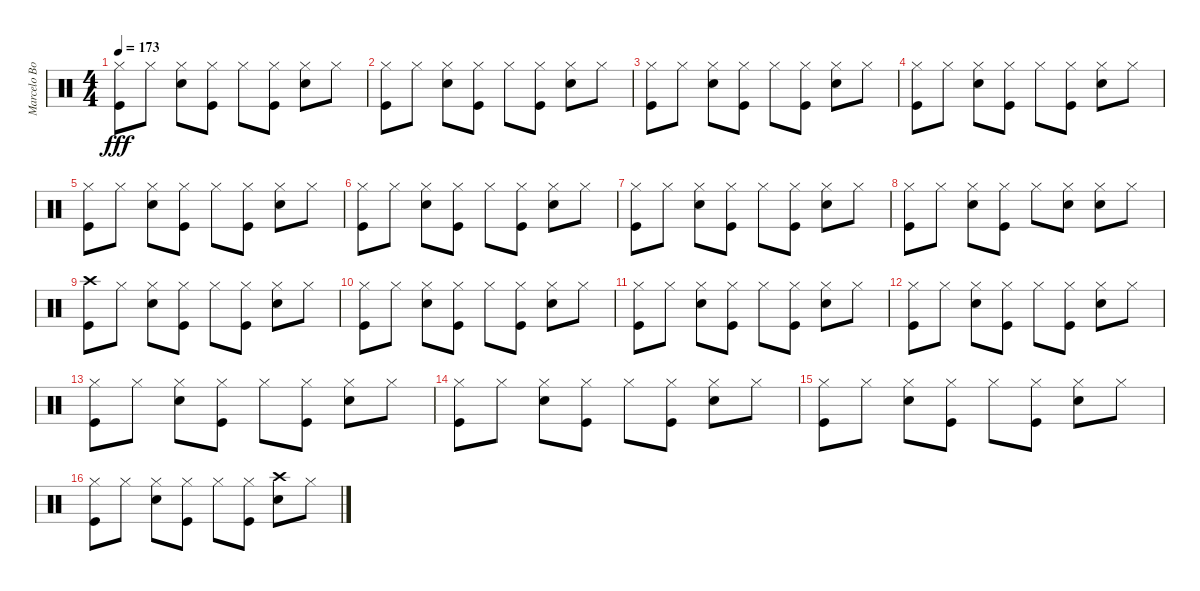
\track ("Marcelo Bonfá (Bateria)" "Marcelo Bo") {instrument percussion}
\staff {score}
\articulation defaults
\ts (4 4)
\tempo 173
\clef neutral
\ks c
("Kick (hit)" "Hi-Hat (closed)").8{dy fff} "Hi-Hat (closed)".8 ("Snare (hit) 2" "Hi-Hat (closed)").8 ("Kick (hit)" "Hi-Hat (closed)").8 "Hi-Hat (closed)".8 ("Hi-Hat (closed)" "Kick (hit)").8 ("Snare (hit) 2" "Hi-Hat (closed)").8 "Hi-Hat (closed)".8 |
("Kick (hit)" "Hi-Hat (closed)").8 "Hi-Hat (closed)".8 ("Snare (hit) 2" "Hi-Hat (closed)").8 ("Kick (hit)" "Hi-Hat (closed)").8 "Hi-Hat (closed)".8 ("Hi-Hat (closed)" "Kick (hit)").8 ("Snare (hit) 2" "Hi-Hat (closed)").8 "Hi-Hat (closed)".8 |
("Kick (hit)" "Hi-Hat (closed)").8 "Hi-Hat (closed)".8 ("Snare (hit) 2" "Hi-Hat (closed)").8 ("Kick (hit)" "Hi-Hat (closed)").8 "Hi-Hat (closed)".8 ("Hi-Hat (closed)" "Kick (hit)").8 ("Snare (hit) 2" "Hi-Hat (closed)").8 "Hi-Hat (closed)".8 |
("Kick (hit)" "Hi-Hat (closed)").8 "Hi-Hat (closed)".8 ("Snare (hit) 2" "Hi-Hat (closed)").8 ("Kick (hit)" "Hi-Hat (closed)").8 "Hi-Hat (closed)".8 ("Hi-Hat (closed)" "Kick (hit)").8 ("Snare (hit) 2" "Hi-Hat (closed)").8 "Hi-Hat (closed)".8 |
("Kick (hit)" "Hi-Hat (closed)").8 "Hi-Hat (closed)".8 ("Snare (hit) 2" "Hi-Hat (closed)").8 ("Kick (hit)" "Hi-Hat (closed)").8 "Hi-Hat (closed)".8 ("Hi-Hat (closed)" "Kick (hit)").8 ("Snare (hit) 2" "Hi-Hat (closed)").8 "Hi-Hat (closed)".8 |
("Kick (hit)" "Hi-Hat (closed)").8 "Hi-Hat (closed)".8 ("Snare (hit) 2" "Hi-Hat (closed)").8 ("Kick (hit)" "Hi-Hat (closed)").8 "Hi-Hat (closed)".8 ("Hi-Hat (closed)" "Kick (hit)").8 ("Snare (hit) 2" "Hi-Hat (closed)").8 "Hi-Hat (closed)".8 |
("Kick (hit)" "Hi-Hat (closed)").8 "Hi-Hat (closed)".8 ("Snare (hit) 2" "Hi-Hat (closed)").8 ("Kick (hit)" "Hi-Hat (closed)").8 "Hi-Hat (closed)".8 ("Hi-Hat (closed)" "Kick (hit)").8 ("Snare (hit) 2" "Hi-Hat (closed)").8 "Hi-Hat (closed)".8 |
("Kick (hit)" "Hi-Hat (closed)").8 "Hi-Hat (closed)".8 ("Snare (hit) 2" "Hi-Hat (closed)").8 ("Kick (hit)" "Hi-Hat (closed)").8 "Hi-Hat (closed)".8 ("Snare (hit) 2" "Hi-Hat (closed)").8 ("Snare (hit) 2" "Hi-Hat (closed)").8 "Hi-Hat (closed)".8 |
("Kick (hit)" "Crash high (hit)").8 "Hi-Hat (closed)".8 ("Snare (hit) 2" "Hi-Hat (closed)").8 ("Kick (hit)" "Hi-Hat (closed)").8 "Hi-Hat (closed)".8 ("Hi-Hat (closed)" "Kick (hit)").8 ("Snare (hit) 2" "Hi-Hat (closed)").8 "Hi-Hat (closed)".8 |
("Kick (hit)" "Hi-Hat (closed)").8 "Hi-Hat (closed)".8 ("Snare (hit) 2" "Hi-Hat (closed)").8 ("Kick (hit)" "Hi-Hat (closed)").8 "Hi-Hat (closed)".8 ("Hi-Hat (closed)" "Kick (hit)").8 ("Snare (hit) 2" "Hi-Hat (closed)").8 "Hi-Hat (closed)".8 |
("Kick (hit)" "Hi-Hat (closed)").8 "Hi-Hat (closed)".8 ("Snare (hit) 2" "Hi-Hat (closed)").8 ("Kick (hit)" "Hi-Hat (closed)").8 "Hi-Hat (closed)".8 ("Hi-Hat (closed)" "Kick (hit)").8 ("Snare (hit) 2" "Hi-Hat (closed)").8 "Hi-Hat (closed)".8 |
("Kick (hit)" "Hi-Hat (closed)").8 "Hi-Hat (closed)".8 ("Snare (hit) 2" "Hi-Hat (closed)").8 ("Kick (hit)" "Hi-Hat (closed)").8 "Hi-Hat (closed)".8 ("Hi-Hat (closed)" "Kick (hit)").8 ("Snare (hit) 2" "Hi-Hat (closed)").8 "Hi-Hat (closed)".8 |
("Kick (hit)" "Hi-Hat (closed)").8 "Hi-Hat (closed)".8 ("Snare (hit) 2" "Hi-Hat (closed)").8 ("Kick (hit)" "Hi-Hat (closed)").8 "Hi-Hat (closed)".8 ("Hi-Hat (closed)" "Kick (hit)").8 ("Snare (hit) 2" "Hi-Hat (closed)").8 "Hi-Hat (closed)".8 |
("Kick (hit)" "Hi-Hat (closed)").8 "Hi-Hat (closed)".8 ("Snare (hit) 2" "Hi-Hat (closed)").8 ("Kick (hit)" "Hi-Hat (closed)").8 "Hi-Hat (closed)".8 ("Hi-Hat (closed)" "Kick (hit)").8 ("Snare (hit) 2" "Hi-Hat (closed)").8 "Hi-Hat (closed)".8 |
("Kick (hit)" "Hi-Hat (closed)").8 "Hi-Hat (closed)".8 ("Snare (hit) 2" "Hi-Hat (closed)").8 ("Kick (hit)" "Hi-Hat (closed)").8 "Hi-Hat (closed)".8 ("Hi-Hat (closed)" "Kick (hit)").8 ("Snare (hit) 2" "Hi-Hat (closed)").8 "Hi-Hat (closed)".8 |
("Kick (hit)" "Hi-Hat (closed)").8 "Hi-Hat (closed)".8 ("Snare (hit) 2" "Hi-Hat (closed)").8 ("Kick (hit)" "Hi-Hat (closed)").8 "Hi-Hat (closed)".8 ("Hi-Hat (closed)" "Kick (hit)").8 ("Snare (hit) 2" "Crash high (hit)").8 "Hi-Hat (closed)".8
